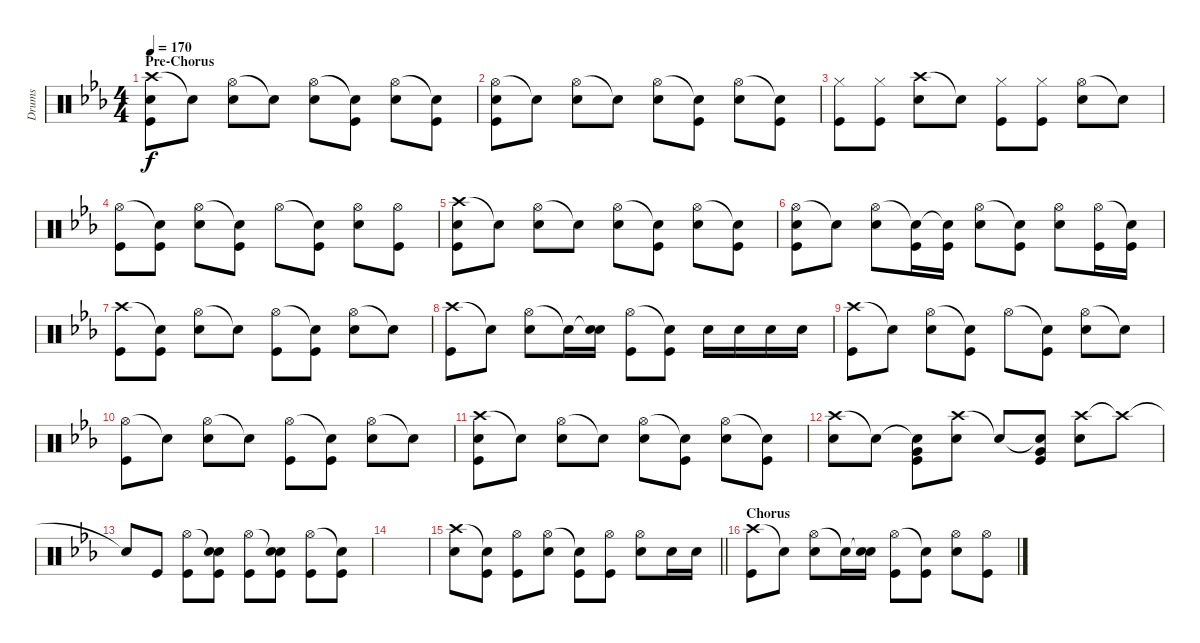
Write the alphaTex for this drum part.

\track ("Drums" "Drums") {solo instrument percussion}
\staff {score}
\articulation defaults
\ts (4 4)
\section ("" "Pre-Chorus")
\tempo 170
\clef neutral
\ks eb
("Crash high (hit)" "Snare (hit) 2" "Kick (hit)").8{dy f} "Snare (hit)"{t}.8 ("Hi-Hat (open)" "Snare (hit) 2").8 "Snare (hit)"{t}.8 ("Hi-Hat (open)" "Snare (hit) 2").8 ("Snare (hit)"{t} "Kick (hit)").8 ("Hi-Hat (open)" "Snare (hit) 2").8 ("Snare (hit)"{t} "Kick (hit)").8 |
("Hi-Hat (open)" "Snare (hit) 2" "Kick (hit)").8 "Snare (hit)"{t}.8 ("Hi-Hat (open)" "Snare (hit) 2").8 "Snare (hit)"{t}.8 ("Hi-Hat (open)" "Snare (hit) 2").8 ("Snare (hit)"{t} "Kick (hit)").8 ("Hi-Hat (open)" "Snare (hit) 2").8 ("Snare (hit)"{t} "Kick (hit)").8 |
("Hi-Hat (closed)" "Kick (hit)").8 ("Hi-Hat (closed)" "Kick (hit)").8 ("Crash high (hit)" "Snare (hit) 2").8 "Snare (hit)"{t}.8 ("Hi-Hat (closed)" "Kick (hit)").8 ("Hi-Hat (closed)" "Kick (hit)").8 ("Hi-Hat (open)" "Snare (hit) 2").8 "Snare (hit)"{t}.8 |
("Hi-Hat (open)" "Kick (hit)").8 ("Snare (hit)"{t} "Kick (hit)").8 ("Hi-Hat (open)" "Snare (hit) 2").8 ("Snare (hit)"{t} "Kick (hit)").8 "Hi-Hat (open)".8 ("Snare (hit)"{t} "Kick (hit)").8 ("Hi-Hat (open)" "Snare (hit) 2").8 ("Hi-Hat (open)" "Kick (hit)").8 |
("Crash high (hit)" "Snare (hit) 2" "Kick (hit)").8 "Snare (hit)"{t}.8 ("Hi-Hat (open)" "Snare (hit) 2").8 "Snare (hit)"{t}.8 ("Hi-Hat (open)" "Snare (hit) 2").8 ("Snare (hit)"{t} "Kick (hit)").8 ("Hi-Hat (open)" "Snare (hit) 2").8 ("Snare (hit)"{t} "Kick (hit)").8 |
("Hi-Hat (open)" "Snare (hit) 2" "Kick (hit)").8 "Snare (hit)"{t}.8 ("Hi-Hat (open)" "Snare (hit) 2").8 ("Snare (hit)"{t} "Kick (hit)").16 ("Snare (hit)"{t} "Kick (hit)").16 ("Hi-Hat (open)" "Snare (hit) 2").8 ("Snare (hit)"{t} "Kick (hit)").8 ("Hi-Hat (open)" "Snare (hit) 2").8 ("Hi-Hat (open)" "Kick (hit)").16 ("Snare (hit)"{t} "Kick (hit)").16 |
("Crash high (hit)" "Kick (hit)").8 ("Snare (hit)"{t} "Kick (hit)").8 ("Hi-Hat (open)" "Snare (hit) 2").8 "Snare (hit)"{t}.8 ("Hi-Hat (open)" "Kick (hit)").8 ("Snare (hit)"{t} "Kick (hit)").8 ("Hi-Hat (open)" "Snare (hit) 2").8 "Snare (hit)"{t}.8 |
("Crash high (hit)" "Kick (hit)").8 "Snare (hit)"{t}.8 ("Hi-Hat (open)" "Snare (hit) 2").8 "Snare (hit)"{t}.16 ("Snare (hit)"{t} "Snare (hit) 2").16 ("Hi-Hat (open)" "Kick (hit)").8 ("Snare (hit)"{t} "Kick (hit)").8 "Snare (hit) 2".16 "Snare (hit) 2".16 "Snare (hit) 2".16 "Snare (hit) 2".16 |
("Crash high (hit)" "Kick (hit)").8 "Snare (hit)"{t}.8 ("Hi-Hat (open)" "Snare (hit) 2").8 ("Snare (hit)"{t} "Kick (hit)").8 "Hi-Hat (open)".8 ("Snare (hit)"{t} "Kick (hit)").8 ("Hi-Hat (open)" "Snare (hit) 2").8 "Snare (hit)"{t}.8 |
("Hi-Hat (open)" "Kick (hit)").8 "Snare (hit)"{t}.8 ("Hi-Hat (open)" "Snare (hit) 2").8 "Snare (hit)"{t}.8 ("Hi-Hat (open)" "Kick (hit)").8 ("Snare (hit)"{t} "Kick (hit)").8 ("Hi-Hat (open)" "Snare (hit) 2").8 "Snare (hit)"{t}.8 |
("Crash high (hit)" "Snare (hit) 2" "Kick (hit)").8 "Snare (hit)"{t}.8 ("Hi-Hat (open)" "Snare (hit) 2").8 "Snare (hit)"{t}.8 ("Hi-Hat (open)" "Snare (hit) 2").8 ("Snare (hit)"{t} "Kick (hit)").8 ("Hi-Hat (open)" "Snare (hit) 2").8 ("Snare (hit)"{t} "Kick (hit)").8 |
("Crash high (hit)" "Snare (hit) 2").8 "Snare (hit)"{t}.8 ("Snare (hit)"{t} "Very Low Tom (hit)" "Kick (hit)").8 ("Crash high (hit)" "Snare (hit) 2").8 "Snare (hit)"{t}.8 ("Snare (hit)"{t} "Very Low Tom (hit)" "Kick (hit)").8 ("Crash high (hit)" "Snare (hit) 2").8 "Crash high (hit)"{t}.8 |
"Snare (hit)"{t}.8 "Kick (hit)".8 ("Hi-Hat (open)" "Kick (hit)").8 ("Snare (hit)"{t} "Snare (hit) 2" "Kick (hit)").8 ("Hi-Hat (open)" "Kick (hit)").8 ("Snare (hit)"{t} "Snare (hit) 2" "Kick (hit)").8 ("Hi-Hat (open)" "Kick (hit)").8 ("Snare (hit)"{t} "Kick (hit)").8 |
|
\barLineRight lightlight
("Crash high (hit)" "Snare (hit) 2").8 ("Snare (hit)"{t} "Kick (hit)").8 ("Hi-Hat (open)" "Kick (hit)").8 ("Hi-Hat (open)" "Snare (hit) 2").8 ("Snare (hit)"{t} "Kick (hit)").8 ("Hi-Hat (open)" "Kick (hit)").8 ("Hi-Hat (open)" "Snare (hit) 2").8 "Snare (hit) 2".16 "Snare (hit) 2".16 |
\section ("" "Chorus")
("Crash high (hit)" "Kick (hit)").8 "Snare (hit)"{t}.8 ("Hi-Hat (open)" "Snare (hit) 2").8 "Snare (hit)"{t}.16 ("Snare (hit)"{t} "Snare (hit) 2").16 ("Hi-Hat (open)" "Kick (hit)").8 ("Snare (hit)"{t} "Kick (hit)").8 ("Hi-Hat (open)" "Snare (hit) 2").8 ("Hi-Hat (open)" "Kick (hit)").8
